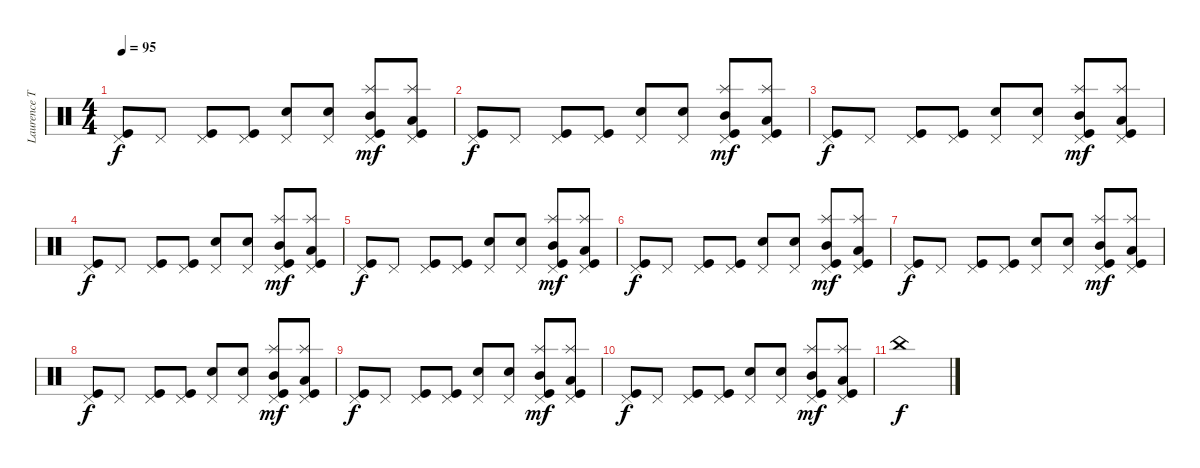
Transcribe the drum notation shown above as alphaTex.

\track ("Laurence Tolhurst (drums)" "Laurence T") {instrument percussion}
\staff {score}
\articulation defaults
\ts (4 4)
\tempo 95
\clef neutral
\ks c
("Pedal Hi-Hat (hit)" "Kick (hit)").8{dy f} "Pedal Hi-Hat (hit)".8 ("Pedal Hi-Hat (hit)" "Kick (hit)").8 ("Pedal Hi-Hat (hit)" "Kick (hit)").8 ("Pedal Hi-Hat (hit)" "Snare (hit) 2").8 ("Pedal Hi-Hat (hit)" "Snare (hit) 2").8 ("Splash (hit)" "Mid Tom (hit)" "Pedal Hi-Hat (hit)" "Kick (hit)").8{dy mf} ("Splash (hit)" "Low Tom (hit)" "Pedal Hi-Hat (hit)" "Kick (hit)").8 |
("Pedal Hi-Hat (hit)" "Kick (hit)").8{dy f} "Pedal Hi-Hat (hit)".8 ("Pedal Hi-Hat (hit)" "Kick (hit)").8 ("Pedal Hi-Hat (hit)" "Kick (hit)").8 ("Pedal Hi-Hat (hit)" "Snare (hit) 2").8 ("Pedal Hi-Hat (hit)" "Snare (hit) 2").8 ("Splash (hit)" "Mid Tom (hit)" "Pedal Hi-Hat (hit)" "Kick (hit)").8{dy mf} ("Splash (hit)" "Low Tom (hit)" "Pedal Hi-Hat (hit)" "Kick (hit)").8 |
("Pedal Hi-Hat (hit)" "Kick (hit)").8{dy f} "Pedal Hi-Hat (hit)".8 ("Pedal Hi-Hat (hit)" "Kick (hit)").8 ("Pedal Hi-Hat (hit)" "Kick (hit)").8 ("Pedal Hi-Hat (hit)" "Snare (hit) 2").8 ("Pedal Hi-Hat (hit)" "Snare (hit) 2").8 ("Splash (hit)" "Mid Tom (hit)" "Pedal Hi-Hat (hit)" "Kick (hit)").8{dy mf} ("Splash (hit)" "Low Tom (hit)" "Pedal Hi-Hat (hit)" "Kick (hit)").8 |
("Pedal Hi-Hat (hit)" "Kick (hit)").8{dy f} "Pedal Hi-Hat (hit)".8 ("Pedal Hi-Hat (hit)" "Kick (hit)").8 ("Pedal Hi-Hat (hit)" "Kick (hit)").8 ("Pedal Hi-Hat (hit)" "Snare (hit) 2").8 ("Pedal Hi-Hat (hit)" "Snare (hit) 2").8 ("Splash (hit)" "Mid Tom (hit)" "Pedal Hi-Hat (hit)" "Kick (hit)").8{dy mf} ("Splash (hit)" "Low Tom (hit)" "Pedal Hi-Hat (hit)" "Kick (hit)").8 |
("Pedal Hi-Hat (hit)" "Kick (hit)").8{dy f} "Pedal Hi-Hat (hit)".8 ("Pedal Hi-Hat (hit)" "Kick (hit)").8 ("Pedal Hi-Hat (hit)" "Kick (hit)").8 ("Pedal Hi-Hat (hit)" "Snare (hit) 2").8 ("Pedal Hi-Hat (hit)" "Snare (hit) 2").8 ("Splash (hit)" "Mid Tom (hit)" "Pedal Hi-Hat (hit)" "Kick (hit)").8{dy mf} ("Splash (hit)" "Low Tom (hit)" "Pedal Hi-Hat (hit)" "Kick (hit)").8 |
("Pedal Hi-Hat (hit)" "Kick (hit)").8{dy f} "Pedal Hi-Hat (hit)".8 ("Pedal Hi-Hat (hit)" "Kick (hit)").8 ("Pedal Hi-Hat (hit)" "Kick (hit)").8 ("Pedal Hi-Hat (hit)" "Snare (hit) 2").8 ("Pedal Hi-Hat (hit)" "Snare (hit) 2").8 ("Splash (hit)" "Mid Tom (hit)" "Pedal Hi-Hat (hit)" "Kick (hit)").8{dy mf} ("Splash (hit)" "Low Tom (hit)" "Pedal Hi-Hat (hit)" "Kick (hit)").8 |
("Pedal Hi-Hat (hit)" "Kick (hit)").8{dy f} "Pedal Hi-Hat (hit)".8 ("Pedal Hi-Hat (hit)" "Kick (hit)").8 ("Pedal Hi-Hat (hit)" "Kick (hit)").8 ("Pedal Hi-Hat (hit)" "Snare (hit) 2").8 ("Pedal Hi-Hat (hit)" "Snare (hit) 2").8 ("Splash (hit)" "Mid Tom (hit)" "Pedal Hi-Hat (hit)" "Kick (hit)").8{dy mf} ("Splash (hit)" "Low Tom (hit)" "Pedal Hi-Hat (hit)" "Kick (hit)").8 |
("Pedal Hi-Hat (hit)" "Kick (hit)").8{dy f} "Pedal Hi-Hat (hit)".8 ("Pedal Hi-Hat (hit)" "Kick (hit)").8 ("Pedal Hi-Hat (hit)" "Kick (hit)").8 ("Pedal Hi-Hat (hit)" "Snare (hit) 2").8 ("Pedal Hi-Hat (hit)" "Snare (hit) 2").8 ("Splash (hit)" "Mid Tom (hit)" "Pedal Hi-Hat (hit)" "Kick (hit)").8{dy mf} ("Splash (hit)" "Low Tom (hit)" "Pedal Hi-Hat (hit)" "Kick (hit)").8 |
("Pedal Hi-Hat (hit)" "Kick (hit)").8{dy f} "Pedal Hi-Hat (hit)".8 ("Pedal Hi-Hat (hit)" "Kick (hit)").8 ("Pedal Hi-Hat (hit)" "Kick (hit)").8 ("Pedal Hi-Hat (hit)" "Snare (hit) 2").8 ("Pedal Hi-Hat (hit)" "Snare (hit) 2").8 ("Splash (hit)" "Mid Tom (hit)" "Pedal Hi-Hat (hit)" "Kick (hit)").8{dy mf} ("Splash (hit)" "Low Tom (hit)" "Pedal Hi-Hat (hit)" "Kick (hit)").8 |
("Pedal Hi-Hat (hit)" "Kick (hit)").8{dy f} "Pedal Hi-Hat (hit)".8 ("Pedal Hi-Hat (hit)" "Kick (hit)").8 ("Pedal Hi-Hat (hit)" "Kick (hit)").8 ("Pedal Hi-Hat (hit)" "Snare (hit) 2").8 ("Pedal Hi-Hat (hit)" "Snare (hit) 2").8 ("Splash (hit)" "Mid Tom (hit)" "Pedal Hi-Hat (hit)" "Kick (hit)").8{dy mf} ("Splash (hit)" "Low Tom (hit)" "Pedal Hi-Hat (hit)" "Kick (hit)").8 |
"China (hit)".1{dy f}
